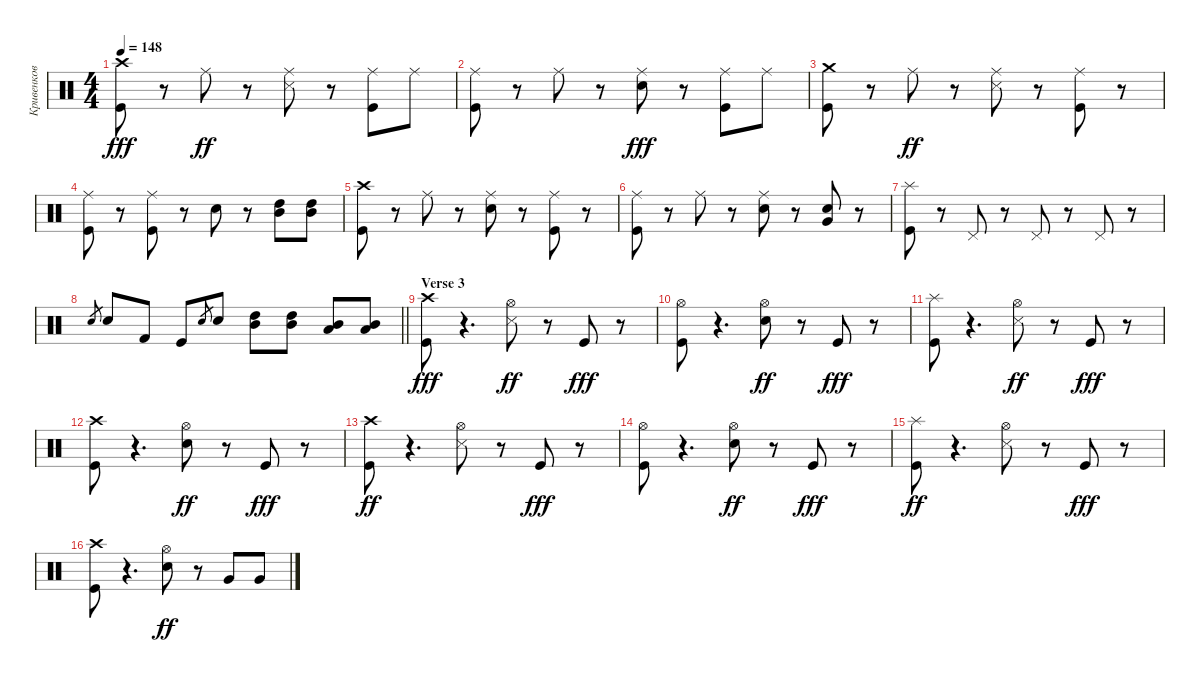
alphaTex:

\track ("Кривенков" "Кривенков") {instrument percussion}
\staff {score}
\articulation defaults
\ts (4 4)
\tempo 148
\clef neutral
\ks c
("Kick (hit)" "Crash high (hit)").8{dy fff} r.8 "Ride (middle)".8{dy ff} r.8 ("Ride (middle)" "Snare (side stick) 3").8 r.8 ("Kick (hit)" "Ride (middle)").8 "Ride (middle)".8 |
("Kick (hit)" "Ride (middle)").8 r.8 "Ride (middle)".8 r.8 ("Ride (middle)" "Snare (hit) 2").8{dy fff} r.8 ("Ride (middle)" "Kick (hit)").8 "Ride (middle)".8 |
("Crash medium (hit)" "Kick (hit)").8 r.8 "Ride (middle)".8{dy ff} r.8 ("Snare (side stick) 3" "Ride (middle)").8 r.8 ("Kick (hit)" "Ride (middle)").8 r.8 |
("Kick (hit)" "Ride (middle)").8 r.8 ("Kick (hit)" "Ride (middle)").8 r.8 "Snare (hit) 2".8 r.8 ("Mid Tom (hit)" "High Tom (hit)").8 ("Mid Tom (hit)" "High Tom (hit)").8 |
("Crash high (hit)" "Kick (hit)").8 r.8 "Ride (middle)".8 r.8 ("Snare (hit) 2" "Ride (middle)").8 r.8 ("Ride (middle)" "Kick (hit)").8 r.8 |
("Ride (middle)" "Kick (hit)").8 r.8 "Ride (middle)".8 r.8 ("Ride (middle)" "Snare (hit) 2").8 r.8 ("Very Low Tom (hit)" "Snare (hit) 2").8 r.8 |
("Splash (hit)" "Kick (hit)").8 r.8 "Pedal Hi-Hat (hit)".8 r.8 "Pedal Hi-Hat (hit)".8 r.8 "Pedal Hi-Hat (hit)".8 r.8 |
\barLineRight lightlight "Snare (hit) 2".8{gr} "Snare (hit) 2".8 "Kick (hit) 2".8 "Kick (hit)".8 "Snare (hit) 2".8{gr} "Snare (hit) 2".8
("Mid Tom (hit)" "High Tom (hit)").8 ("High Tom (hit)" "Mid Tom (hit)").8 ("Low Tom (hit)" "Mid Tom (hit)").8 ("Low Tom (hit)" "Mid Tom (hit)").8 |
\section ("" "Verse 3")
("Crash high (hit)" "Kick (hit)").8{dy fff} r.4{d} ("Hi-Hat (open)" "Snare (side stick) 3").8{dy ff} r.8 "Kick (hit)".8{dy fff} r.8 |
("Hi-Hat (open)" "Kick (hit)").8 r.4{d} ("Hi-Hat (open)" "Snare (hit) 2").8{dy ff} r.8 "Kick (hit)".8{dy fff} r.8 |
("Splash (hit)" "Kick (hit)").8 r.4{d} ("Hi-Hat (open)" "Snare (side stick) 3").8{dy ff} r.8 "Kick (hit)".8{dy fff} r.8 |
("Crash high (hit)" "Kick (hit)").8 r.4{d} ("Hi-Hat (open)" "Snare (hit) 2").8{dy ff} r.8 "Kick (hit)".8{dy fff} r.8 |
("Kick (hit)" "Crash high (hit)").8{dy ff} r.4{d} ("Snare (side stick) 3" "Hi-Hat (open)").8 r.8 "Kick (hit)".8{dy fff} r.8 |
("Hi-Hat (open)" "Kick (hit)").8 r.4{d} ("Hi-Hat (open)" "Snare (hit) 2").8{dy ff} r.8 "Kick (hit)".8{dy fff} r.8 |
("Kick (hit)" "Splash (hit)").8{dy ff} r.4{d} ("Snare (side stick) 3" "Hi-Hat (open)").8 r.8 "Kick (hit)".8{dy fff} r.8 |
("Crash high (hit)" "Kick (hit)").8 r.4{d} ("Snare (hit) 2" "Hi-Hat (open)").8{dy ff} r.8 "Very Low Tom (hit)".8 "Very Low Tom (hit)".8
